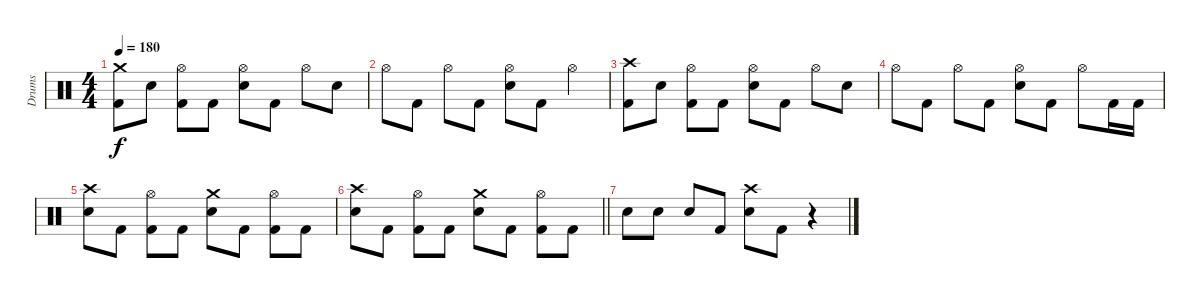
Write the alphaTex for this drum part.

\track ("Drums" "Drums") {instrument percussion}
\staff {score}
\articulation defaults
\ts (4 4)
\tempo 180
\clef neutral
\ks c
("Crash medium (hit)" "Kick (hit) 2").8{dy f} "Electric Snare (hit)".8 ("Hi-Hat (open)" "Kick (hit) 2").8 "Kick (hit) 2".8 ("Hi-Hat (open)" "Electric Snare (hit)").8 "Kick (hit) 2".8 "Hi-Hat (open)".8 "Electric Snare (hit)".8 |
"Hi-Hat (open)".8 "Kick (hit) 2".8 "Hi-Hat (open)".8 "Kick (hit) 2".8 ("Hi-Hat (open)" "Electric Snare (hit)").8 "Kick (hit) 2".8 "Hi-Hat (open)".4 |
("Crash high (hit)" "Kick (hit) 2").8 "Electric Snare (hit)".8 ("Hi-Hat (open)" "Kick (hit) 2").8 "Kick (hit) 2".8 ("Hi-Hat (open)" "Electric Snare (hit)").8 "Kick (hit) 2".8 "Hi-Hat (open)".8 "Electric Snare (hit)".8 |
"Hi-Hat (open)".8 "Kick (hit) 2".8 "Hi-Hat (open)".8 "Kick (hit) 2".8 ("Hi-Hat (open)" "Electric Snare (hit)").8 "Kick (hit) 2".8 "Hi-Hat (open)".8 "Kick (hit) 2".16 "Kick (hit) 2".16 |
("Crash high (hit)" "Electric Snare (hit)").8 "Kick (hit) 2".8 ("Hi-Hat (open)" "Kick (hit) 2").8 "Kick (hit) 2".8 ("Crash medium (hit)" "Electric Snare (hit)").8 "Kick (hit) 2".8 ("Hi-Hat (open)" "Kick (hit) 2").8 "Kick (hit) 2".8 |
\barLineRight lightlight
("Crash high (hit)" "Electric Snare (hit)").8 "Kick (hit) 2".8 ("Hi-Hat (open)" "Kick (hit) 2").8 "Kick (hit) 2".8 ("Crash medium (hit)" "Electric Snare (hit)").8 "Kick (hit) 2".8 ("Hi-Hat (open)" "Kick (hit) 2").8 "Kick (hit) 2".8 |
\section ("" "")
"Electric Snare (hit)".8 "Electric Snare (hit)".8 "Electric Snare (hit)".8 "Kick (hit) 2".8 ("Crash high (hit)" "Electric Snare (hit)").8 "Kick (hit) 2".8 r.4{volume 0}
